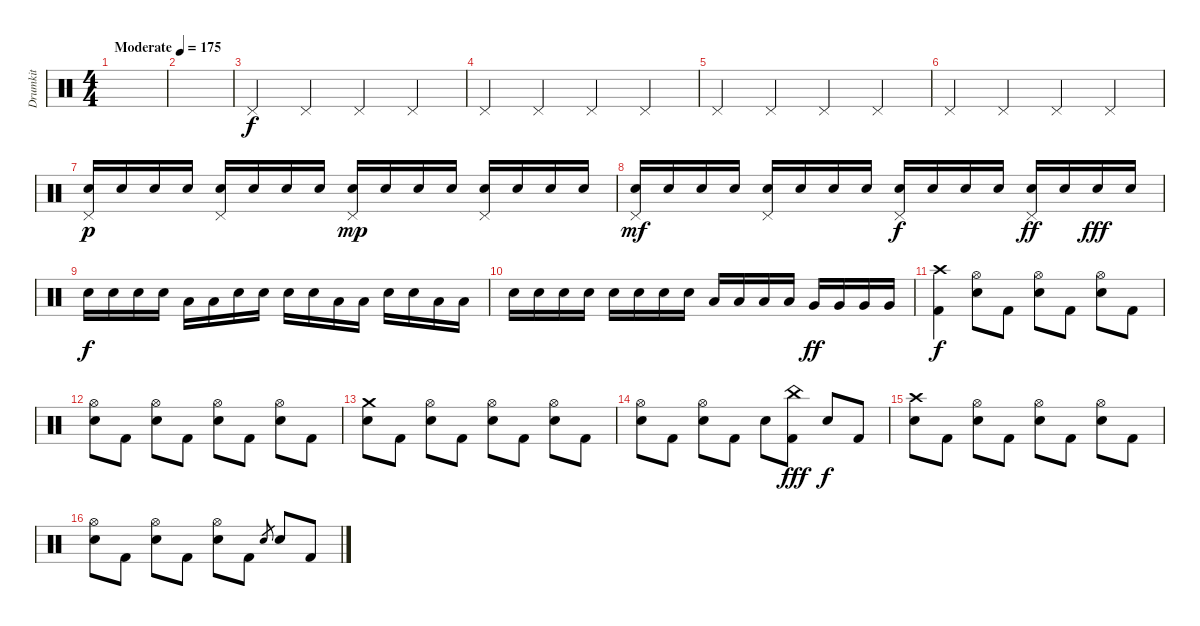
\track ("Drumkit" "Drumkit") {instrument percussion}
\staff {score}
\articulation defaults
\ts (4 4)
\tempo (175 "Moderate")
\clef neutral
\ks c
|
|
"Pedal Hi-Hat (hit)".4 "Pedal Hi-Hat (hit)".4 "Pedal Hi-Hat (hit)".4 "Pedal Hi-Hat (hit)".4 |
"Pedal Hi-Hat (hit)".4 "Pedal Hi-Hat (hit)".4 "Pedal Hi-Hat (hit)".4 "Pedal Hi-Hat (hit)".4 |
"Pedal Hi-Hat (hit)".4 "Pedal Hi-Hat (hit)".4 "Pedal Hi-Hat (hit)".4 "Pedal Hi-Hat (hit)".4 |
"Pedal Hi-Hat (hit)".4 "Pedal Hi-Hat (hit)".4 "Pedal Hi-Hat (hit)".4 "Pedal Hi-Hat (hit)".4 |
("Pedal Hi-Hat (hit)" "Electric Snare (hit)").16{dy p} "Electric Snare (hit)".16 "Electric Snare (hit)".16 "Electric Snare (hit)".16 ("Pedal Hi-Hat (hit)" "Electric Snare (hit)").16 "Electric Snare (hit)".16 "Electric Snare (hit)".16 "Electric Snare (hit)".16 ("Pedal Hi-Hat (hit)" "Electric Snare (hit)").16{dy mp} "Electric Snare (hit)".16 "Electric Snare (hit)".16 "Electric Snare (hit)".16 ("Pedal Hi-Hat (hit)" "Electric Snare (hit)").16 "Electric Snare (hit)".16 "Electric Snare (hit)".16 "Electric Snare (hit)".16 |
("Pedal Hi-Hat (hit)" "Electric Snare (hit)").16{dy mf} "Electric Snare (hit)".16 "Electric Snare (hit)".16 "Electric Snare (hit)".16 ("Pedal Hi-Hat (hit)" "Electric Snare (hit)").16 "Electric Snare (hit)".16 "Electric Snare (hit)".16 "Electric Snare (hit)".16 ("Pedal Hi-Hat (hit)" "Electric Snare (hit)").16{dy f} "Electric Snare (hit)".16 "Electric Snare (hit)".16 "Electric Snare (hit)".16 ("Pedal Hi-Hat (hit)" "Electric Snare (hit)").16{dy ff} "Electric Snare (hit)".16 "Electric Snare (hit)".16{dy fff} "Electric Snare (hit)".16 |
"Electric Snare (hit)".16{dy f} "Electric Snare (hit)".16 "Electric Snare (hit)".16 "Electric Snare (hit)".16 "Low Tom (hit)".16 "Low Tom (hit)".16 "Electric Snare (hit)".16 "Electric Snare (hit)".16 "Electric Snare (hit)".16 "Electric Snare (hit)".16 "Low Tom (hit)".16 "Low Tom (hit)".16 "Electric Snare (hit)".16 "Electric Snare (hit)".16 "Low Tom (hit)".16 "Low Tom (hit)".16 |
"Electric Snare (hit)".16 "Electric Snare (hit)".16 "Electric Snare (hit)".16 "Electric Snare (hit)".16 "Electric Snare (hit)".16 "Electric Snare (hit)".16 "Electric Snare (hit)".16 "Electric Snare (hit)".16 "Low Tom (hit)".16 "Low Tom (hit)".16 "Low Tom (hit)".16 "Low Tom (hit)".16 "Very Low Tom (hit)".16{dy ff} "Very Low Tom (hit)".16 "Very Low Tom (hit)".16 "Very Low Tom (hit)".16 |
("Crash high (hit)" "Kick (hit) 2").4{dy f} ("Hi-Hat (open)" "Electric Snare (hit)").8 "Kick (hit) 2".8 ("Hi-Hat (open)" "Electric Snare (hit)").8 "Kick (hit) 2".8 ("Hi-Hat (open)" "Electric Snare (hit)").8 "Kick (hit) 2".8 |
("Hi-Hat (open)" "Electric Snare (hit)").8 "Kick (hit) 2".8 ("Hi-Hat (open)" "Electric Snare (hit)").8 "Kick (hit) 2".8 ("Hi-Hat (open)" "Electric Snare (hit)").8 "Kick (hit) 2".8 ("Hi-Hat (open)" "Electric Snare (hit)").8 "Kick (hit) 2".8 |
("Crash medium (hit)" "Electric Snare (hit)").8 "Kick (hit) 2".8 ("Hi-Hat (open)" "Electric Snare (hit)").8 "Kick (hit) 2".8 ("Hi-Hat (open)" "Electric Snare (hit)").8 "Kick (hit) 2".8 ("Hi-Hat (open)" "Electric Snare (hit)").8 "Kick (hit) 2".8 |
("Hi-Hat (open)" "Electric Snare (hit)").8 "Kick (hit) 2".8 ("Hi-Hat (open)" "Electric Snare (hit)").8 "Kick (hit) 2".8 "Electric Snare (hit)".8 ("China (hit)" "Kick (hit) 2").8{dy fff} "Electric Snare (hit)".8{dy f} "Kick (hit) 2".8 |
("Crash high (hit)" "Electric Snare (hit)").8 "Kick (hit) 2".8 ("Hi-Hat (open)" "Electric Snare (hit)").8 "Kick (hit) 2".8 ("Hi-Hat (open)" "Electric Snare (hit)").8 "Kick (hit) 2".8 ("Hi-Hat (open)" "Electric Snare (hit)").8 "Kick (hit) 2".8 |
("Hi-Hat (open)" "Electric Snare (hit)").8 "Kick (hit) 2".8 ("Hi-Hat (open)" "Electric Snare (hit)").8 "Kick (hit) 2".8 ("Hi-Hat (open)" "Electric Snare (hit)").8 "Kick (hit) 2".8 "Electric Snare (hit)".8{gr} "Electric Snare (hit)".8 "Kick (hit) 2".8
